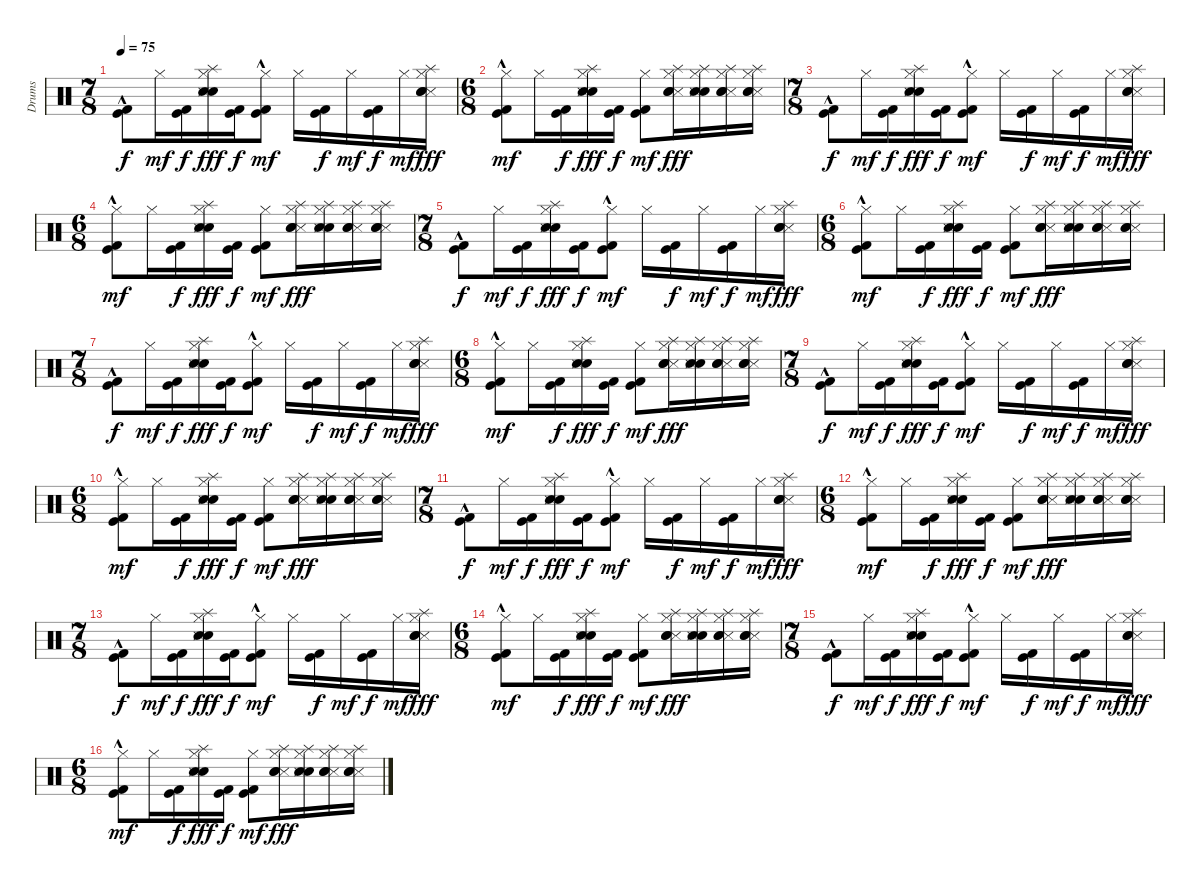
\track ("Drums" "Drums") {instrument percussion}
\staff {score}
\articulation defaults
\ts (7 8)
\tempo 75
\clef neutral
\ks c
("Kick (hit)"{hac} "Kick (hit) 2"{hac}).8{dy f} "Hi-Hat (closed)".16{dy mf} ("Kick (hit)" "Kick (hit) 2").16{dy f} ("Hi-Hat (closed)" "Electric Snare (hit)" "Splash (hit)" "Metronome (hit)" "Snare (hit) 2").16{dy fff} ("Kick (hit)" "Kick (hit) 2").16{dy f} ("Hi-Hat (closed)" "Kick (hit) 2"{hac} "Kick (hit)"{hac}).8{dy mf} "Hi-Hat (closed)".16 ("Kick (hit)" "Kick (hit) 2").16{dy f} "Hi-Hat (closed)".16{dy mf} ("Kick (hit)" "Kick (hit) 2").16{dy f} "Hi-Hat (closed)".16{dy mf} ("Splash (hit)" "Hi-Hat (closed)" "Metronome (hit)" "Snare (hit) 2" "Electric Snare (hit)").16{dy fff} |
\ts (6 8)
("Hi-Hat (closed)" "Kick (hit)"{hac} "Kick (hit) 2"{hac}).8{dy mf} "Hi-Hat (closed)".16 ("Kick (hit)" "Kick (hit) 2").16{dy f} ("Hi-Hat (closed)" "Splash (hit)" "Snare (hit) 2" "Metronome (hit)" "Electric Snare (hit)").16{dy fff} ("Kick (hit)" "Kick (hit) 2").16{dy f} ("Hi-Hat (closed)" "Kick (hit)" "Kick (hit) 2").8{dy mf} ("Splash (hit)" "Metronome (hit)" "Electric Snare (hit)" "Hi-Hat (closed)" "Snare (hit) 2").16{dy fff} ("Splash (hit)" "Electric Snare (hit)" "Snare (hit) 2" "Metronome (hit)" "Hi-Hat (closed)").16 ("Splash (hit)" "Metronome (hit)" "Snare (hit) 2" "Electric Snare (hit)" "Hi-Hat (closed)").16 ("Splash (hit)" "Metronome (hit)" "Snare (hit) 2" "Electric Snare (hit)" "Hi-Hat (closed)").16 |
\ts (7 8)
("Kick (hit)"{hac} "Kick (hit) 2"{hac}).8{dy f} "Hi-Hat (closed)".16{dy mf} ("Kick (hit)" "Kick (hit) 2").16{dy f} ("Hi-Hat (closed)" "Electric Snare (hit)" "Splash (hit)" "Metronome (hit)" "Snare (hit) 2").16{dy fff} ("Kick (hit)" "Kick (hit) 2").16{dy f} ("Hi-Hat (closed)" "Kick (hit) 2"{hac} "Kick (hit)"{hac}).8{dy mf} "Hi-Hat (closed)".16 ("Kick (hit)" "Kick (hit) 2").16{dy f} "Hi-Hat (closed)".16{dy mf} ("Kick (hit)" "Kick (hit) 2").16{dy f} "Hi-Hat (closed)".16{dy mf} ("Splash (hit)" "Hi-Hat (closed)" "Metronome (hit)" "Snare (hit) 2" "Electric Snare (hit)").16{dy fff} |
\ts (6 8)
("Hi-Hat (closed)" "Kick (hit)"{hac} "Kick (hit) 2"{hac}).8{dy mf} "Hi-Hat (closed)".16 ("Kick (hit)" "Kick (hit) 2").16{dy f} ("Hi-Hat (closed)" "Splash (hit)" "Snare (hit) 2" "Metronome (hit)" "Electric Snare (hit)").16{dy fff} ("Kick (hit)" "Kick (hit) 2").16{dy f} ("Hi-Hat (closed)" "Kick (hit)" "Kick (hit) 2").8{dy mf} ("Splash (hit)" "Metronome (hit)" "Electric Snare (hit)" "Hi-Hat (closed)" "Snare (hit) 2").16{dy fff} ("Splash (hit)" "Electric Snare (hit)" "Snare (hit) 2" "Metronome (hit)" "Hi-Hat (closed)").16 ("Splash (hit)" "Metronome (hit)" "Snare (hit) 2" "Electric Snare (hit)" "Hi-Hat (closed)").16 ("Splash (hit)" "Metronome (hit)" "Snare (hit) 2" "Electric Snare (hit)" "Hi-Hat (closed)").16 |
\ts (7 8)
("Kick (hit)"{hac} "Kick (hit) 2"{hac}).8{dy f} "Hi-Hat (closed)".16{dy mf} ("Kick (hit)" "Kick (hit) 2").16{dy f} ("Hi-Hat (closed)" "Electric Snare (hit)" "Splash (hit)" "Metronome (hit)" "Snare (hit) 2").16{dy fff} ("Kick (hit)" "Kick (hit) 2").16{dy f} ("Hi-Hat (closed)" "Kick (hit) 2"{hac} "Kick (hit)"{hac}).8{dy mf} "Hi-Hat (closed)".16 ("Kick (hit)" "Kick (hit) 2").16{dy f} "Hi-Hat (closed)".16{dy mf} ("Kick (hit)" "Kick (hit) 2").16{dy f} "Hi-Hat (closed)".16{dy mf} ("Splash (hit)" "Hi-Hat (closed)" "Metronome (hit)" "Snare (hit) 2" "Electric Snare (hit)").16{dy fff} |
\ts (6 8)
("Hi-Hat (closed)" "Kick (hit)"{hac} "Kick (hit) 2"{hac}).8{dy mf} "Hi-Hat (closed)".16 ("Kick (hit)" "Kick (hit) 2").16{dy f} ("Hi-Hat (closed)" "Splash (hit)" "Snare (hit) 2" "Metronome (hit)" "Electric Snare (hit)").16{dy fff} ("Kick (hit)" "Kick (hit) 2").16{dy f} ("Hi-Hat (closed)" "Kick (hit)" "Kick (hit) 2").8{dy mf} ("Splash (hit)" "Metronome (hit)" "Electric Snare (hit)" "Hi-Hat (closed)" "Snare (hit) 2").16{dy fff} ("Splash (hit)" "Electric Snare (hit)" "Snare (hit) 2" "Metronome (hit)" "Hi-Hat (closed)").16 ("Splash (hit)" "Metronome (hit)" "Snare (hit) 2" "Electric Snare (hit)" "Hi-Hat (closed)").16 ("Splash (hit)" "Metronome (hit)" "Snare (hit) 2" "Electric Snare (hit)" "Hi-Hat (closed)").16 |
\ts (7 8)
("Kick (hit)"{hac} "Kick (hit) 2"{hac}).8{dy f} "Hi-Hat (closed)".16{dy mf} ("Kick (hit)" "Kick (hit) 2").16{dy f} ("Hi-Hat (closed)" "Electric Snare (hit)" "Splash (hit)" "Metronome (hit)" "Snare (hit) 2").16{dy fff} ("Kick (hit)" "Kick (hit) 2").16{dy f} ("Hi-Hat (closed)" "Kick (hit) 2"{hac} "Kick (hit)"{hac}).8{dy mf} "Hi-Hat (closed)".16 ("Kick (hit)" "Kick (hit) 2").16{dy f} "Hi-Hat (closed)".16{dy mf} ("Kick (hit)" "Kick (hit) 2").16{dy f} "Hi-Hat (closed)".16{dy mf} ("Splash (hit)" "Hi-Hat (closed)" "Metronome (hit)" "Snare (hit) 2" "Electric Snare (hit)").16{dy fff} |
\ts (6 8)
("Hi-Hat (closed)" "Kick (hit)"{hac} "Kick (hit) 2"{hac}).8{dy mf} "Hi-Hat (closed)".16 ("Kick (hit)" "Kick (hit) 2").16{dy f} ("Hi-Hat (closed)" "Splash (hit)" "Snare (hit) 2" "Metronome (hit)" "Electric Snare (hit)").16{dy fff} ("Kick (hit)" "Kick (hit) 2").16{dy f} ("Hi-Hat (closed)" "Kick (hit)" "Kick (hit) 2").8{dy mf} ("Splash (hit)" "Metronome (hit)" "Electric Snare (hit)" "Hi-Hat (closed)" "Snare (hit) 2").16{dy fff} ("Splash (hit)" "Electric Snare (hit)" "Snare (hit) 2" "Metronome (hit)" "Hi-Hat (closed)").16 ("Splash (hit)" "Metronome (hit)" "Snare (hit) 2" "Electric Snare (hit)" "Hi-Hat (closed)").16 ("Splash (hit)" "Metronome (hit)" "Snare (hit) 2" "Electric Snare (hit)" "Hi-Hat (closed)").16 |
\ts (7 8)
("Kick (hit)"{hac} "Kick (hit) 2"{hac}).8{dy f} "Hi-Hat (closed)".16{dy mf} ("Kick (hit)" "Kick (hit) 2").16{dy f} ("Hi-Hat (closed)" "Electric Snare (hit)" "Splash (hit)" "Metronome (hit)" "Snare (hit) 2").16{dy fff} ("Kick (hit)" "Kick (hit) 2").16{dy f} ("Hi-Hat (closed)" "Kick (hit) 2"{hac} "Kick (hit)"{hac}).8{dy mf} "Hi-Hat (closed)".16 ("Kick (hit)" "Kick (hit) 2").16{dy f} "Hi-Hat (closed)".16{dy mf} ("Kick (hit)" "Kick (hit) 2").16{dy f} "Hi-Hat (closed)".16{dy mf} ("Splash (hit)" "Hi-Hat (closed)" "Metronome (hit)" "Snare (hit) 2" "Electric Snare (hit)").16{dy fff} |
\ts (6 8)
("Hi-Hat (closed)" "Kick (hit)"{hac} "Kick (hit) 2"{hac}).8{dy mf} "Hi-Hat (closed)".16 ("Kick (hit)" "Kick (hit) 2").16{dy f} ("Hi-Hat (closed)" "Splash (hit)" "Snare (hit) 2" "Metronome (hit)" "Electric Snare (hit)").16{dy fff} ("Kick (hit)" "Kick (hit) 2").16{dy f} ("Hi-Hat (closed)" "Kick (hit)" "Kick (hit) 2").8{dy mf} ("Splash (hit)" "Metronome (hit)" "Electric Snare (hit)" "Hi-Hat (closed)" "Snare (hit) 2").16{dy fff} ("Splash (hit)" "Electric Snare (hit)" "Snare (hit) 2" "Metronome (hit)" "Hi-Hat (closed)").16 ("Splash (hit)" "Metronome (hit)" "Snare (hit) 2" "Electric Snare (hit)" "Hi-Hat (closed)").16 ("Splash (hit)" "Metronome (hit)" "Snare (hit) 2" "Electric Snare (hit)" "Hi-Hat (closed)").16 |
\ts (7 8)
("Kick (hit)"{hac} "Kick (hit) 2"{hac}).8{dy f} "Hi-Hat (closed)".16{dy mf} ("Kick (hit)" "Kick (hit) 2").16{dy f} ("Hi-Hat (closed)" "Electric Snare (hit)" "Splash (hit)" "Metronome (hit)" "Snare (hit) 2").16{dy fff} ("Kick (hit)" "Kick (hit) 2").16{dy f} ("Hi-Hat (closed)" "Kick (hit) 2"{hac} "Kick (hit)"{hac}).8{dy mf} "Hi-Hat (closed)".16 ("Kick (hit)" "Kick (hit) 2").16{dy f} "Hi-Hat (closed)".16{dy mf} ("Kick (hit)" "Kick (hit) 2").16{dy f} "Hi-Hat (closed)".16{dy mf} ("Splash (hit)" "Hi-Hat (closed)" "Metronome (hit)" "Snare (hit) 2" "Electric Snare (hit)").16{dy fff} |
\ts (6 8)
("Hi-Hat (closed)" "Kick (hit)"{hac} "Kick (hit) 2"{hac}).8{dy mf} "Hi-Hat (closed)".16 ("Kick (hit)" "Kick (hit) 2").16{dy f} ("Hi-Hat (closed)" "Splash (hit)" "Snare (hit) 2" "Metronome (hit)" "Electric Snare (hit)").16{dy fff} ("Kick (hit)" "Kick (hit) 2").16{dy f} ("Hi-Hat (closed)" "Kick (hit)" "Kick (hit) 2").8{dy mf} ("Splash (hit)" "Metronome (hit)" "Electric Snare (hit)" "Hi-Hat (closed)" "Snare (hit) 2").16{dy fff} ("Splash (hit)" "Electric Snare (hit)" "Snare (hit) 2" "Metronome (hit)" "Hi-Hat (closed)").16 ("Splash (hit)" "Metronome (hit)" "Snare (hit) 2" "Electric Snare (hit)" "Hi-Hat (closed)").16 ("Splash (hit)" "Metronome (hit)" "Snare (hit) 2" "Electric Snare (hit)" "Hi-Hat (closed)").16 |
\ts (7 8)
("Kick (hit)"{hac} "Kick (hit) 2"{hac}).8{dy f} "Hi-Hat (closed)".16{dy mf} ("Kick (hit)" "Kick (hit) 2").16{dy f} ("Hi-Hat (closed)" "Electric Snare (hit)" "Splash (hit)" "Metronome (hit)" "Snare (hit) 2").16{dy fff} ("Kick (hit)" "Kick (hit) 2").16{dy f} ("Hi-Hat (closed)" "Kick (hit) 2"{hac} "Kick (hit)"{hac}).8{dy mf} "Hi-Hat (closed)".16 ("Kick (hit)" "Kick (hit) 2").16{dy f} "Hi-Hat (closed)".16{dy mf} ("Kick (hit)" "Kick (hit) 2").16{dy f} "Hi-Hat (closed)".16{dy mf} ("Splash (hit)" "Hi-Hat (closed)" "Metronome (hit)" "Snare (hit) 2" "Electric Snare (hit)").16{dy fff} |
\ts (6 8)
("Hi-Hat (closed)" "Kick (hit)"{hac} "Kick (hit) 2"{hac}).8{dy mf} "Hi-Hat (closed)".16 ("Kick (hit)" "Kick (hit) 2").16{dy f} ("Hi-Hat (closed)" "Splash (hit)" "Snare (hit) 2" "Metronome (hit)" "Electric Snare (hit)").16{dy fff} ("Kick (hit)" "Kick (hit) 2").16{dy f} ("Hi-Hat (closed)" "Kick (hit)" "Kick (hit) 2").8{dy mf} ("Splash (hit)" "Metronome (hit)" "Electric Snare (hit)" "Hi-Hat (closed)" "Snare (hit) 2").16{dy fff} ("Splash (hit)" "Electric Snare (hit)" "Snare (hit) 2" "Metronome (hit)" "Hi-Hat (closed)").16 ("Splash (hit)" "Metronome (hit)" "Snare (hit) 2" "Electric Snare (hit)" "Hi-Hat (closed)").16 ("Splash (hit)" "Metronome (hit)" "Snare (hit) 2" "Electric Snare (hit)" "Hi-Hat (closed)").16 |
\ts (7 8)
("Kick (hit)"{hac} "Kick (hit) 2"{hac}).8{dy f} "Hi-Hat (closed)".16{dy mf} ("Kick (hit)" "Kick (hit) 2").16{dy f} ("Hi-Hat (closed)" "Electric Snare (hit)" "Splash (hit)" "Metronome (hit)" "Snare (hit) 2").16{dy fff} ("Kick (hit)" "Kick (hit) 2").16{dy f} ("Hi-Hat (closed)" "Kick (hit) 2"{hac} "Kick (hit)"{hac}).8{dy mf} "Hi-Hat (closed)".16 ("Kick (hit)" "Kick (hit) 2").16{dy f} "Hi-Hat (closed)".16{dy mf} ("Kick (hit)" "Kick (hit) 2").16{dy f} "Hi-Hat (closed)".16{dy mf} ("Splash (hit)" "Hi-Hat (closed)" "Metronome (hit)" "Snare (hit) 2" "Electric Snare (hit)").16{dy fff} |
\ts (6 8)
("Hi-Hat (closed)" "Kick (hit)"{hac} "Kick (hit) 2"{hac}).8{dy mf} "Hi-Hat (closed)".16 ("Kick (hit)" "Kick (hit) 2").16{dy f} ("Hi-Hat (closed)" "Splash (hit)" "Snare (hit) 2" "Metronome (hit)" "Electric Snare (hit)").16{dy fff} ("Kick (hit)" "Kick (hit) 2").16{dy f} ("Hi-Hat (closed)" "Kick (hit)" "Kick (hit) 2").8{dy mf} ("Splash (hit)" "Metronome (hit)" "Electric Snare (hit)" "Hi-Hat (closed)" "Snare (hit) 2").16{dy fff} ("Splash (hit)" "Electric Snare (hit)" "Snare (hit) 2" "Metronome (hit)" "Hi-Hat (closed)").16 ("Splash (hit)" "Metronome (hit)" "Snare (hit) 2" "Electric Snare (hit)" "Hi-Hat (closed)").16 ("Splash (hit)" "Metronome (hit)" "Snare (hit) 2" "Electric Snare (hit)" "Hi-Hat (closed)").16
